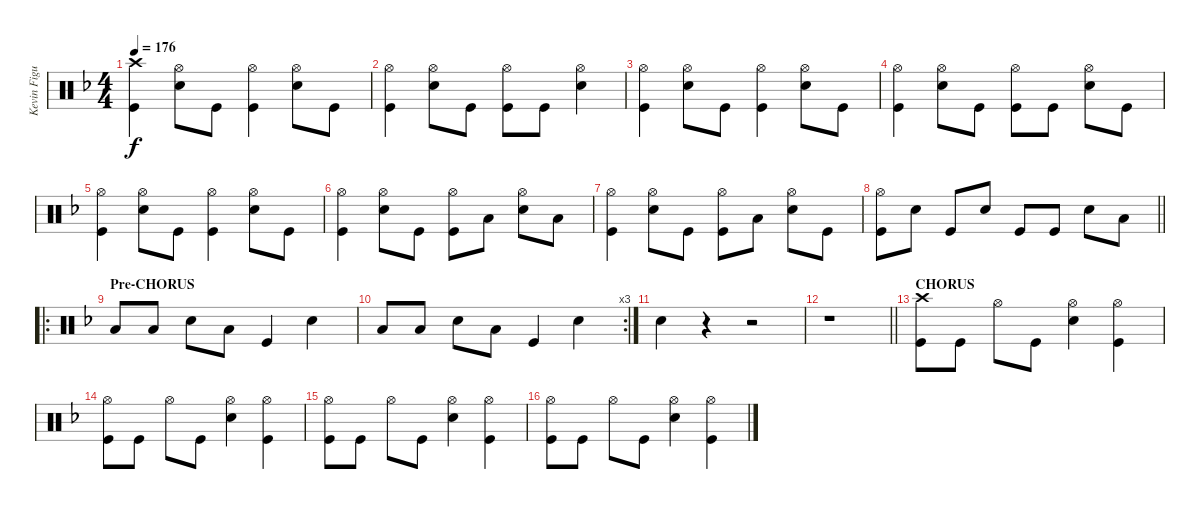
\track ("Kevin Figueiredo - Drums" "Kevin Figu") {instrument percussion}
\staff {score}
\articulation defaults
\ts (4 4)
\tempo 176
\clef neutral
\ks f
("Crash high (hit)" "Kick (hit)").4{dy f} ("Hi-Hat (open)" "Snare (hit) 2").8 "Kick (hit)".8 ("Hi-Hat (open)" "Kick (hit)").4 ("Hi-Hat (open)" "Snare (hit) 2").8 "Kick (hit)".8 |
("Hi-Hat (open)" "Kick (hit)").4 ("Hi-Hat (open)" "Snare (hit) 2").8 "Kick (hit)".8 ("Hi-Hat (open)" "Kick (hit)").8 "Kick (hit)".8 ("Hi-Hat (open)" "Snare (hit) 2").4 |
("Hi-Hat (open)" "Kick (hit)").4 ("Hi-Hat (open)" "Snare (hit) 2").8 "Kick (hit)".8 ("Hi-Hat (open)" "Kick (hit)").4 ("Hi-Hat (open)" "Snare (hit) 2").8 "Kick (hit)".8 |
("Hi-Hat (open)" "Kick (hit)").4 ("Hi-Hat (open)" "Snare (hit) 2").8 "Kick (hit)".8 ("Hi-Hat (open)" "Kick (hit)").8 "Kick (hit)".8 ("Hi-Hat (open)" "Snare (hit) 2").8 "Kick (hit)".8 |
("Hi-Hat (open)" "Kick (hit)").4 ("Hi-Hat (open)" "Snare (hit) 2").8 "Kick (hit)".8 ("Hi-Hat (open)" "Kick (hit)").4 ("Hi-Hat (open)" "Snare (hit) 2").8 "Kick (hit)".8 |
("Hi-Hat (open)" "Kick (hit)").4 ("Hi-Hat (open)" "Snare (hit) 2").8 "Kick (hit)".8 ("Hi-Hat (open)" "Kick (hit)").8 "Low Floor Tom (hit)".8 ("Hi-Hat (open)" "Snare (hit) 2").8 "Low Floor Tom (hit)".8 |
("Hi-Hat (open)" "Kick (hit)").4 ("Hi-Hat (open)" "Snare (hit) 2").8 "Kick (hit)".8 ("Hi-Hat (open)" "Kick (hit)").8 "Low Floor Tom (hit)".8 ("Hi-Hat (open)" "Snare (hit) 2").8 "Kick (hit)".8 |
\barLineRight lightlight
("Hi-Hat (open)" "Kick (hit)").8 "Snare (hit) 2".8 "Kick (hit)".8 "Snare (hit) 2".8 "Kick (hit)".8 "Kick (hit)".8 "Snare (hit) 2".8 "Low Floor Tom (hit)".8 |
\ro
\section ("" "Pre-CHORUS")
"Low Tom (hit)".8 "Low Floor Tom (hit)".8 "Snare (hit) 2".8 "Low Floor Tom (hit)".8 "Kick (hit)".4 "Snare (hit) 2".4 |
\rc 3 "Low Tom (hit)".8 "Low Floor Tom (hit)".8 "Snare (hit) 2".8 "Low Floor Tom (hit)".8 "Kick (hit)".4 "Snare (hit) 2".4
|
"Snare (hit) 2".4 r.4 r.2 |
\barLineRight lightlight
r.1 |
\section ("" "CHORUS")
("Crash high (hit)" "Kick (hit)").8 "Kick (hit)".8 "Hi-Hat (open)".8 "Kick (hit)".8 ("Hi-Hat (open)" "Snare (hit) 2").4 ("Hi-Hat (open)" "Kick (hit)").4 |
("Hi-Hat (open)" "Kick (hit)").8 "Kick (hit)".8 "Hi-Hat (open)".8 "Kick (hit)".8 ("Hi-Hat (open)" "Snare (hit) 2").4 ("Hi-Hat (open)" "Kick (hit)").4 |
("Hi-Hat (open)" "Kick (hit)").8 "Kick (hit)".8 "Hi-Hat (open)".8 "Kick (hit)".8 ("Hi-Hat (open)" "Snare (hit) 2").4 ("Hi-Hat (open)" "Kick (hit)").4 |
("Hi-Hat (open)" "Kick (hit)").8 "Kick (hit)".8 "Hi-Hat (open)".8 "Kick (hit)".8 ("Hi-Hat (open)" "Snare (hit) 2").4 ("Hi-Hat (open)" "Kick (hit)").4
